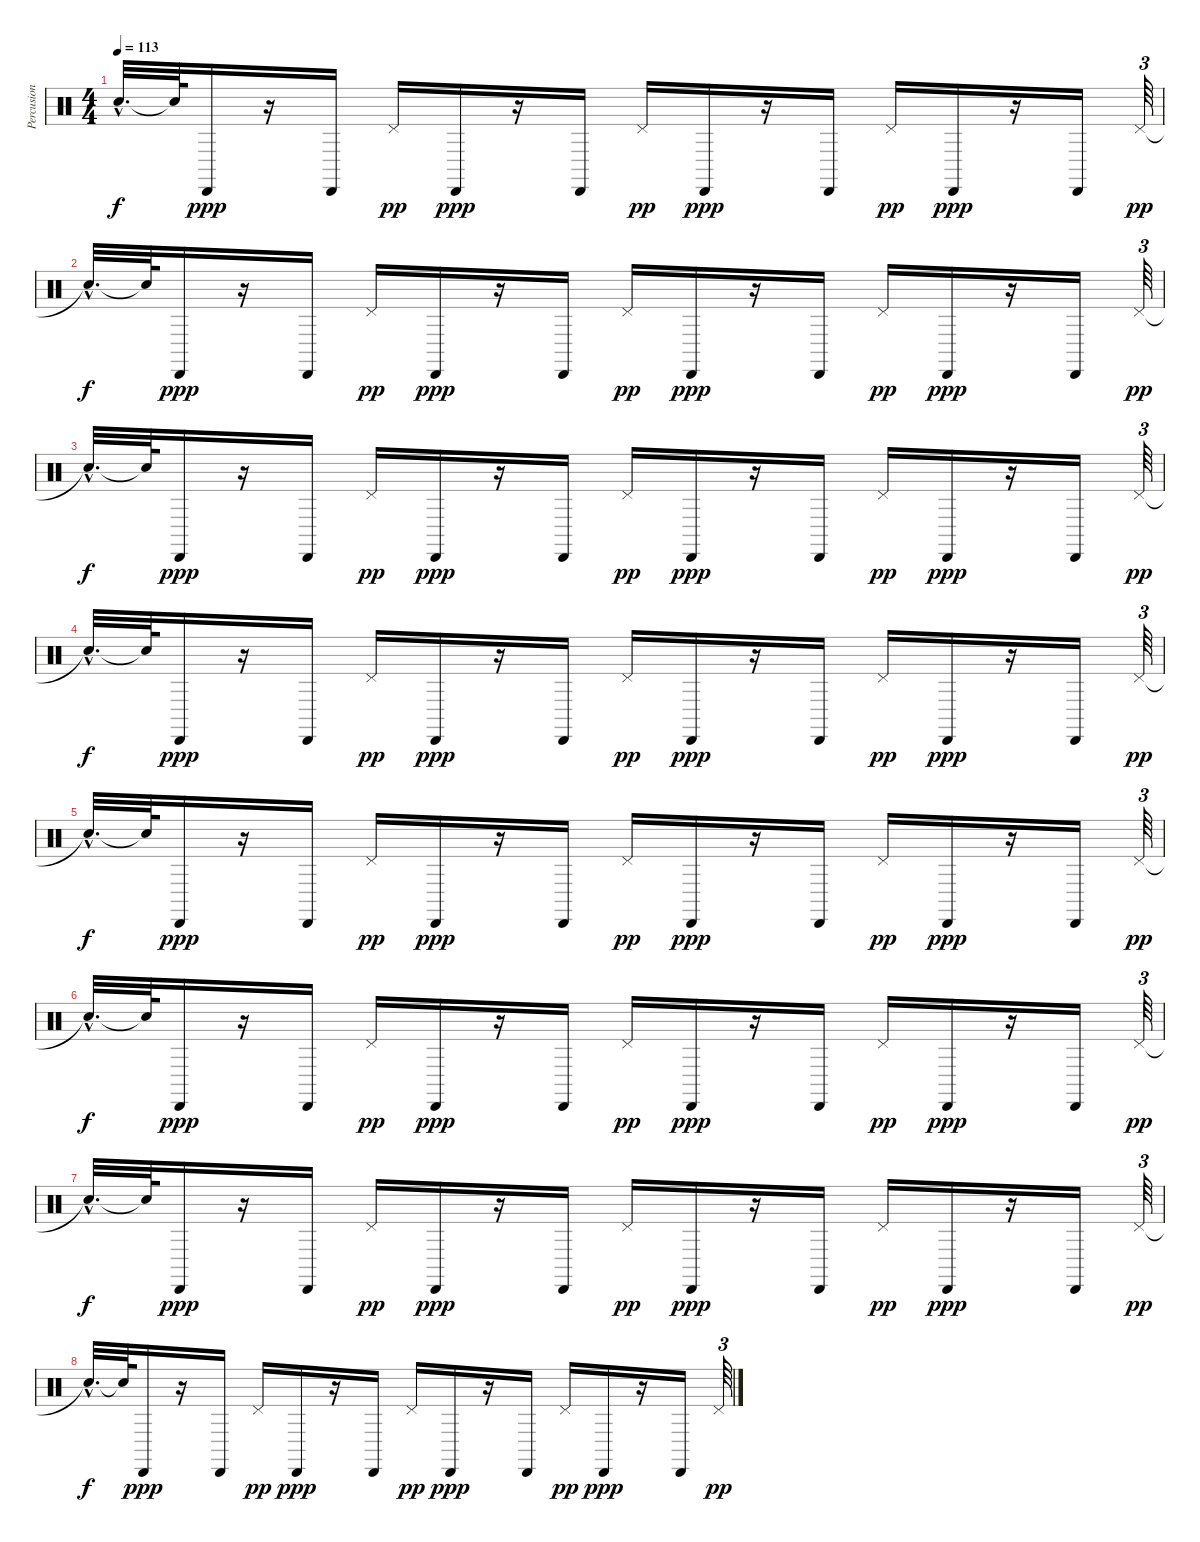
\track ("Percusion" "Percusion") {instrument percussion}
\staff {score}
\articulation defaults
\ts (4 4)
\tempo 113
\clef neutral
\ks c "Snare (hit)"{hac t}.32{d dy f} "Snare (hit)"{t}.64 "Cabasa (hit)".16{dy ppp}
r.16 "Cabasa (hit)".16 "Pedal Hi-Hat (hit)".16{dy pp} "Cabasa (hit)".16{dy ppp} r.16 "Cabasa (hit)".16 "Pedal Hi-Hat (hit)".16{dy pp} "Cabasa (hit)".16{dy ppp} r.16 "Cabasa (hit)".16 "Pedal Hi-Hat (hit)".16{dy pp} "Cabasa (hit)".16{dy ppp} r.16 "Cabasa (hit)".16 "Pedal Hi-Hat (hit)".64{tu (3 2) dy pp} |
"Snare (hit)"{hac t}.32{d dy f} "Snare (hit)"{t}.64 "Cabasa (hit)".16{dy ppp} r.16 "Cabasa (hit)".16 "Pedal Hi-Hat (hit)".16{dy pp} "Cabasa (hit)".16{dy ppp} r.16 "Cabasa (hit)".16 "Pedal Hi-Hat (hit)".16{dy pp} "Cabasa (hit)".16{dy ppp} r.16 "Cabasa (hit)".16 "Pedal Hi-Hat (hit)".16{dy pp} "Cabasa (hit)".16{dy ppp} r.16 "Cabasa (hit)".16 "Pedal Hi-Hat (hit)".64{tu (3 2) dy pp} |
"Snare (hit)"{hac t}.32{d dy f} "Snare (hit)"{t}.64 "Cabasa (hit)".16{dy ppp} r.16 "Cabasa (hit)".16 "Pedal Hi-Hat (hit)".16{dy pp} "Cabasa (hit)".16{dy ppp} r.16 "Cabasa (hit)".16 "Pedal Hi-Hat (hit)".16{dy pp} "Cabasa (hit)".16{dy ppp} r.16 "Cabasa (hit)".16 "Pedal Hi-Hat (hit)".16{dy pp} "Cabasa (hit)".16{dy ppp} r.16 "Cabasa (hit)".16 "Pedal Hi-Hat (hit)".64{tu (3 2) dy pp} |
"Snare (hit)"{hac t}.32{d dy f} "Snare (hit)"{t}.64 "Cabasa (hit)".16{dy ppp} r.16 "Cabasa (hit)".16 "Pedal Hi-Hat (hit)".16{dy pp} "Cabasa (hit)".16{dy ppp} r.16 "Cabasa (hit)".16 "Pedal Hi-Hat (hit)".16{dy pp} "Cabasa (hit)".16{dy ppp} r.16 "Cabasa (hit)".16 "Pedal Hi-Hat (hit)".16{dy pp} "Cabasa (hit)".16{dy ppp} r.16 "Cabasa (hit)".16 "Pedal Hi-Hat (hit)".64{tu (3 2) dy pp} |
"Snare (hit)"{hac t}.32{d dy f} "Snare (hit)"{t}.64 "Cabasa (hit)".16{dy ppp} r.16 "Cabasa (hit)".16 "Pedal Hi-Hat (hit)".16{dy pp} "Cabasa (hit)".16{dy ppp} r.16 "Cabasa (hit)".16 "Pedal Hi-Hat (hit)".16{dy pp} "Cabasa (hit)".16{dy ppp} r.16 "Cabasa (hit)".16 "Pedal Hi-Hat (hit)".16{dy pp} "Cabasa (hit)".16{dy ppp} r.16 "Cabasa (hit)".16 "Pedal Hi-Hat (hit)".64{tu (3 2) dy pp} |
"Snare (hit)"{hac t}.32{d dy f} "Snare (hit)"{t}.64 "Cabasa (hit)".16{dy ppp} r.16 "Cabasa (hit)".16 "Pedal Hi-Hat (hit)".16{dy pp} "Cabasa (hit)".16{dy ppp} r.16 "Cabasa (hit)".16 "Pedal Hi-Hat (hit)".16{dy pp} "Cabasa (hit)".16{dy ppp} r.16 "Cabasa (hit)".16 "Pedal Hi-Hat (hit)".16{dy pp} "Cabasa (hit)".16{dy ppp} r.16 "Cabasa (hit)".16 "Pedal Hi-Hat (hit)".64{tu (3 2) dy pp} |
"Snare (hit)"{hac t}.32{d dy f} "Snare (hit)"{t}.64 "Cabasa (hit)".16{dy ppp} r.16 "Cabasa (hit)".16 "Pedal Hi-Hat (hit)".16{dy pp} "Cabasa (hit)".16{dy ppp} r.16 "Cabasa (hit)".16 "Pedal Hi-Hat (hit)".16{dy pp} "Cabasa (hit)".16{dy ppp} r.16 "Cabasa (hit)".16 "Pedal Hi-Hat (hit)".16{dy pp} "Cabasa (hit)".16{dy ppp} r.16 "Cabasa (hit)".16 "Pedal Hi-Hat (hit)".64{tu (3 2) dy pp} |
"Snare (hit)"{hac t}.32{d dy f} "Snare (hit)"{t}.64 "Cabasa (hit)".16{dy ppp} r.16 "Cabasa (hit)".16 "Pedal Hi-Hat (hit)".16{dy pp} "Cabasa (hit)".16{dy ppp} r.16 "Cabasa (hit)".16 "Pedal Hi-Hat (hit)".16{dy pp} "Cabasa (hit)".16{dy ppp} r.16 "Cabasa (hit)".16 "Pedal Hi-Hat (hit)".16{dy pp} "Cabasa (hit)".16{dy ppp} r.16 "Cabasa (hit)".16 "Pedal Hi-Hat (hit)".64{tu (3 2) dy pp}
